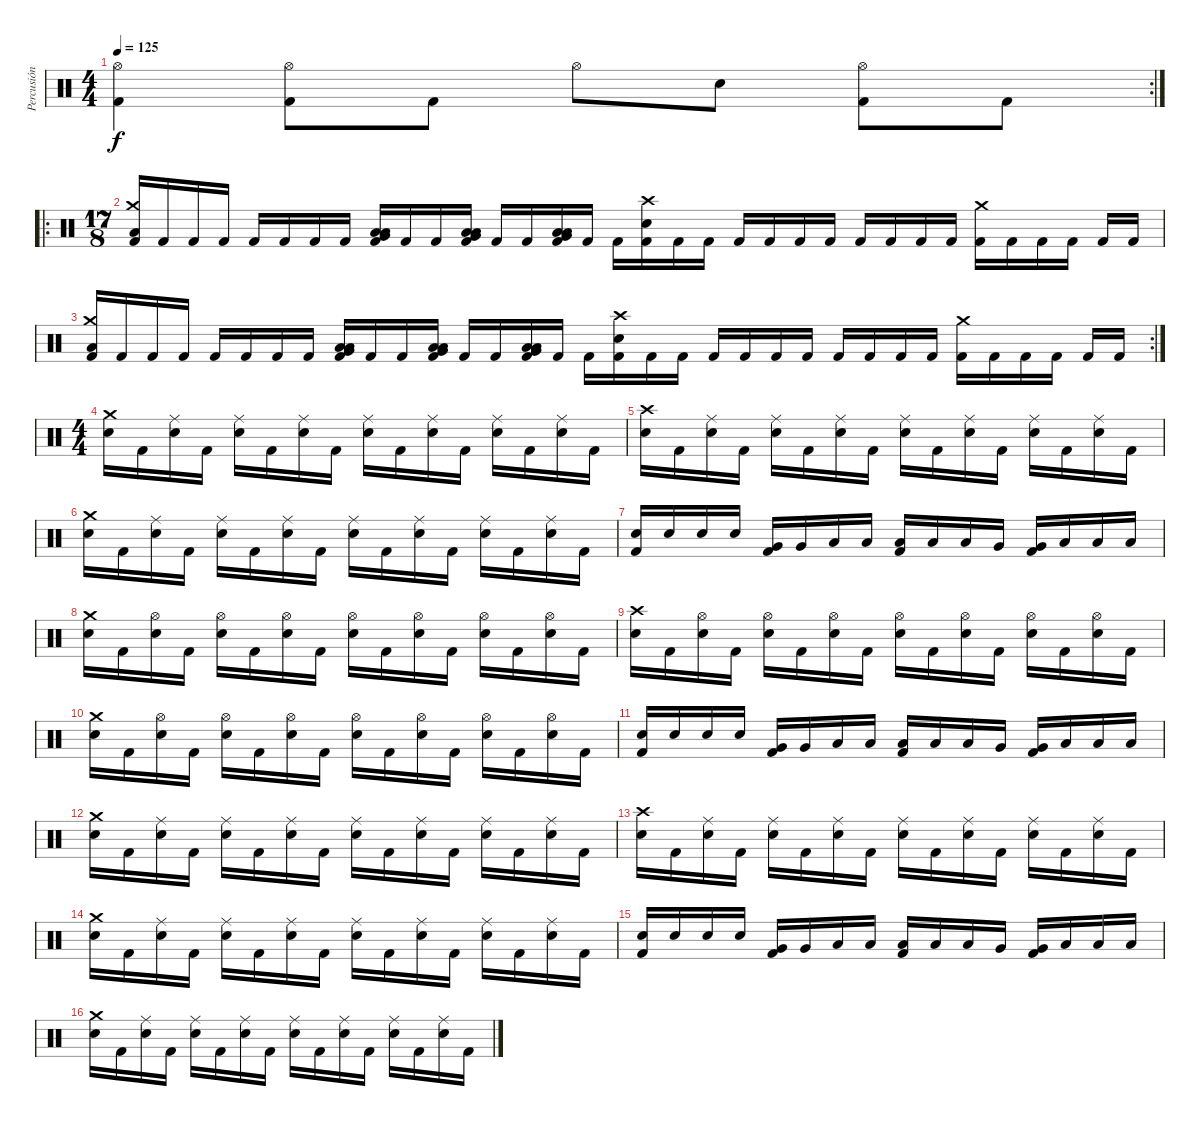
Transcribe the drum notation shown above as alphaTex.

\track ("Percusión" "Percusión") {instrument percussion}
\staff {score}
\articulation defaults
\rc 2
\ts (4 4)
\tempo 125
\clef neutral
\ks c
("Hi-Hat (open)" "Kick (hit) 2").4{dy f} ("Hi-Hat (open)" "Kick (hit) 2").8 "Kick (hit) 2".8 "Hi-Hat (open)".8 "Electric Snare (hit)".8 ("Hi-Hat (open)" "Kick (hit) 2").8 "Kick (hit) 2".8 |
\ro
\ts (17 8)
("Crash medium (hit)" "Low Floor Tom (hit)" "Kick (hit) 2").16 "Kick (hit) 2".16 "Kick (hit) 2".16 "Kick (hit) 2".16 "Kick (hit) 2".16 "Kick (hit) 2".16 "Kick (hit) 2".16 "Kick (hit) 2".16 ("Low Tom (hit)" "Very Low Tom (hit)" "Low Floor Tom (hit)" "Kick (hit) 2").16 "Kick (hit) 2".16 "Kick (hit) 2".16 ("Low Tom (hit)" "Very Low Tom (hit)" "Low Floor Tom (hit)" "Kick (hit) 2").16 "Kick (hit) 2".16 "Kick (hit) 2".16 ("Low Tom (hit)" "Very Low Tom (hit)" "Low Floor Tom (hit)" "Kick (hit) 2").16 "Kick (hit) 2".16 "Kick (hit) 2".16 ("Crash high (hit)" "Electric Snare (hit)" "Kick (hit) 2").16 "Kick (hit) 2".16 "Kick (hit) 2".16 "Kick (hit) 2".16 "Kick (hit) 2".16 "Kick (hit) 2".16 "Kick (hit) 2".16 "Kick (hit) 2".16 "Kick (hit) 2".16 "Kick (hit) 2".16 "Kick (hit) 2".16 ("Crash medium (hit)" "Kick (hit) 2").16 "Kick (hit) 2".16 "Kick (hit) 2".16 "Kick (hit) 2".16 "Kick (hit) 2".16 "Kick (hit) 2".16 |
\rc 2
("Crash medium (hit)" "Low Floor Tom (hit)" "Kick (hit) 2").16 "Kick (hit) 2".16 "Kick (hit) 2".16 "Kick (hit) 2".16 "Kick (hit) 2".16 "Kick (hit) 2".16 "Kick (hit) 2".16 "Kick (hit) 2".16 ("Low Tom (hit)" "Very Low Tom (hit)" "Low Floor Tom (hit)" "Kick (hit) 2").16 "Kick (hit) 2".16 "Kick (hit) 2".16 ("Low Tom (hit)" "Very Low Tom (hit)" "Low Floor Tom (hit)" "Kick (hit) 2").16 "Kick (hit) 2".16 "Kick (hit) 2".16 ("Low Tom (hit)" "Very Low Tom (hit)" "Low Floor Tom (hit)" "Kick (hit) 2").16 "Kick (hit) 2".16 "Kick (hit) 2".16 ("Crash high (hit)" "Electric Snare (hit)" "Kick (hit) 2").16 "Kick (hit) 2".16 "Kick (hit) 2".16 "Kick (hit) 2".16 "Kick (hit) 2".16 "Kick (hit) 2".16 "Kick (hit) 2".16 "Kick (hit) 2".16 "Kick (hit) 2".16 "Kick (hit) 2".16 "Kick (hit) 2".16 ("Crash medium (hit)" "Kick (hit) 2").16 "Kick (hit) 2".16 "Kick (hit) 2".16 "Kick (hit) 2".16 "Kick (hit) 2".16 "Kick (hit) 2".16 |
\ts (4 4)
("Crash medium (hit)" "Electric Snare (hit)").16 "Kick (hit) 2".16 ("Ride (middle)" "Electric Snare (hit)").16 "Kick (hit) 2".16 ("Ride (middle)" "Electric Snare (hit)").16 "Kick (hit) 2".16 ("Ride (middle)" "Electric Snare (hit)").16 "Kick (hit) 2".16 ("Ride (middle)" "Electric Snare (hit)").16 "Kick (hit) 2".16 ("Ride (middle)" "Electric Snare (hit)").16 "Kick (hit) 2".16 ("Ride (middle)" "Electric Snare (hit)").16 "Kick (hit) 2".16 ("Ride (middle)" "Electric Snare (hit)").16 "Kick (hit) 2".16 |
("Crash high (hit)" "Electric Snare (hit)").16 "Kick (hit) 2".16 ("Ride (middle)" "Electric Snare (hit)").16 "Kick (hit) 2".16 ("Ride (middle)" "Electric Snare (hit)").16 "Kick (hit) 2".16 ("Ride (middle)" "Electric Snare (hit)").16 "Kick (hit) 2".16 ("Ride (middle)" "Electric Snare (hit)").16 "Kick (hit) 2".16 ("Ride (middle)" "Electric Snare (hit)").16 "Kick (hit) 2".16 ("Ride (middle)" "Electric Snare (hit)").16 "Kick (hit) 2".16 ("Ride (middle)" "Electric Snare (hit)").16 "Kick (hit) 2".16 |
("Crash medium (hit)" "Electric Snare (hit)").16 "Kick (hit) 2".16 ("Ride (middle)" "Electric Snare (hit)").16 "Kick (hit) 2".16 ("Ride (middle)" "Electric Snare (hit)").16 "Kick (hit) 2".16 ("Ride (middle)" "Electric Snare (hit)").16 "Kick (hit) 2".16 ("Ride (middle)" "Electric Snare (hit)").16 "Kick (hit) 2".16 ("Ride (middle)" "Electric Snare (hit)").16 "Kick (hit) 2".16 ("Ride (middle)" "Electric Snare (hit)").16 "Kick (hit) 2".16 ("Ride (middle)" "Electric Snare (hit)").16 "Kick (hit) 2".16 |
("Electric Snare (hit)" "Kick (hit) 2").16 "Electric Snare (hit)".16 "Electric Snare (hit)".16 "Electric Snare (hit)".16 ("Very Low Tom (hit)" "Kick (hit) 2").16 "Very Low Tom (hit)".16 "Low Floor Tom (hit)".16 "Low Floor Tom (hit)".16 ("Low Tom (hit)" "Kick (hit) 2").16 "Low Tom (hit)".16 "Low Tom (hit)".16 "Very Low Tom (hit)".16 ("Very Low Tom (hit)" "Kick (hit) 2").16 "Low Floor Tom (hit)".16 "Low Floor Tom (hit)".16 "Low Floor Tom (hit)".16 |
("Crash medium (hit)" "Electric Snare (hit)").16 "Kick (hit) 2".16 ("Hi-Hat (open)" "Electric Snare (hit)").16 "Kick (hit) 2".16 ("Hi-Hat (open)" "Electric Snare (hit)").16 "Kick (hit) 2".16 ("Hi-Hat (open)" "Electric Snare (hit)").16 "Kick (hit) 2".16 ("Hi-Hat (open)" "Electric Snare (hit)").16 "Kick (hit) 2".16 ("Hi-Hat (open)" "Electric Snare (hit)").16 "Kick (hit) 2".16 ("Hi-Hat (open)" "Electric Snare (hit)").16 "Kick (hit) 2".16 ("Hi-Hat (open)" "Electric Snare (hit)").16 "Kick (hit) 2".16 |
("Crash high (hit)" "Electric Snare (hit)").16 "Kick (hit) 2".16 ("Hi-Hat (open)" "Electric Snare (hit)").16 "Kick (hit) 2".16 ("Hi-Hat (open)" "Electric Snare (hit)").16 "Kick (hit) 2".16 ("Hi-Hat (open)" "Electric Snare (hit)").16 "Kick (hit) 2".16 ("Hi-Hat (open)" "Electric Snare (hit)").16 "Kick (hit) 2".16 ("Hi-Hat (open)" "Electric Snare (hit)").16 "Kick (hit) 2".16 ("Hi-Hat (open)" "Electric Snare (hit)").16 "Kick (hit) 2".16 ("Hi-Hat (open)" "Electric Snare (hit)").16 "Kick (hit) 2".16 |
("Crash medium (hit)" "Electric Snare (hit)").16 "Kick (hit) 2".16 ("Hi-Hat (open)" "Electric Snare (hit)").16 "Kick (hit) 2".16 ("Hi-Hat (open)" "Electric Snare (hit)").16 "Kick (hit) 2".16 ("Hi-Hat (open)" "Electric Snare (hit)").16 "Kick (hit) 2".16 ("Hi-Hat (open)" "Electric Snare (hit)").16 "Kick (hit) 2".16 ("Hi-Hat (open)" "Electric Snare (hit)").16 "Kick (hit) 2".16 ("Hi-Hat (open)" "Electric Snare (hit)").16 "Kick (hit) 2".16 ("Hi-Hat (open)" "Electric Snare (hit)").16 "Kick (hit) 2".16 |
("Electric Snare (hit)" "Kick (hit) 2").16 "Electric Snare (hit)".16 "Electric Snare (hit)".16 "Electric Snare (hit)".16 ("Very Low Tom (hit)" "Kick (hit) 2").16 "Very Low Tom (hit)".16 "Low Floor Tom (hit)".16 "Low Floor Tom (hit)".16 ("Low Tom (hit)" "Kick (hit) 2").16 "Low Tom (hit)".16 "Low Tom (hit)".16 "Very Low Tom (hit)".16 ("Very Low Tom (hit)" "Kick (hit) 2").16 "Low Floor Tom (hit)".16 "Low Floor Tom (hit)".16 "Low Floor Tom (hit)".16 |
("Crash medium (hit)" "Electric Snare (hit)").16 "Kick (hit) 2".16 ("Ride (middle)" "Electric Snare (hit)").16 "Kick (hit) 2".16 ("Ride (middle)" "Electric Snare (hit)").16 "Kick (hit) 2".16 ("Ride (middle)" "Electric Snare (hit)").16 "Kick (hit) 2".16 ("Ride (middle)" "Electric Snare (hit)").16 "Kick (hit) 2".16 ("Ride (middle)" "Electric Snare (hit)").16 "Kick (hit) 2".16 ("Ride (middle)" "Electric Snare (hit)").16 "Kick (hit) 2".16 ("Ride (middle)" "Electric Snare (hit)").16 "Kick (hit) 2".16 |
("Crash high (hit)" "Electric Snare (hit)").16 "Kick (hit) 2".16 ("Ride (middle)" "Electric Snare (hit)").16 "Kick (hit) 2".16 ("Ride (middle)" "Electric Snare (hit)").16 "Kick (hit) 2".16 ("Ride (middle)" "Electric Snare (hit)").16 "Kick (hit) 2".16 ("Ride (middle)" "Electric Snare (hit)").16 "Kick (hit) 2".16 ("Ride (middle)" "Electric Snare (hit)").16 "Kick (hit) 2".16 ("Ride (middle)" "Electric Snare (hit)").16 "Kick (hit) 2".16 ("Ride (middle)" "Electric Snare (hit)").16 "Kick (hit) 2".16 |
("Crash medium (hit)" "Electric Snare (hit)").16 "Kick (hit) 2".16 ("Ride (middle)" "Electric Snare (hit)").16 "Kick (hit) 2".16 ("Ride (middle)" "Electric Snare (hit)").16 "Kick (hit) 2".16 ("Ride (middle)" "Electric Snare (hit)").16 "Kick (hit) 2".16 ("Ride (middle)" "Electric Snare (hit)").16 "Kick (hit) 2".16 ("Ride (middle)" "Electric Snare (hit)").16 "Kick (hit) 2".16 ("Ride (middle)" "Electric Snare (hit)").16 "Kick (hit) 2".16 ("Ride (middle)" "Electric Snare (hit)").16 "Kick (hit) 2".16 |
("Electric Snare (hit)" "Kick (hit) 2").16 "Electric Snare (hit)".16 "Electric Snare (hit)".16 "Electric Snare (hit)".16 ("Very Low Tom (hit)" "Kick (hit) 2").16 "Very Low Tom (hit)".16 "Low Floor Tom (hit)".16 "Low Floor Tom (hit)".16 ("Low Tom (hit)" "Kick (hit) 2").16 "Low Tom (hit)".16 "Low Tom (hit)".16 "Very Low Tom (hit)".16 ("Very Low Tom (hit)" "Kick (hit) 2").16 "Low Floor Tom (hit)".16 "Low Floor Tom (hit)".16 "Low Floor Tom (hit)".16 |
("Crash medium (hit)" "Electric Snare (hit)").16 "Kick (hit) 2".16 ("Ride (middle)" "Electric Snare (hit)").16 "Kick (hit) 2".16 ("Ride (middle)" "Electric Snare (hit)").16 "Kick (hit) 2".16 ("Ride (middle)" "Electric Snare (hit)").16 "Kick (hit) 2".16 ("Ride (middle)" "Electric Snare (hit)").16 "Kick (hit) 2".16 ("Ride (middle)" "Electric Snare (hit)").16 "Kick (hit) 2".16 ("Ride (middle)" "Electric Snare (hit)").16 "Kick (hit) 2".16 ("Ride (middle)" "Electric Snare (hit)").16 "Kick (hit) 2".16
